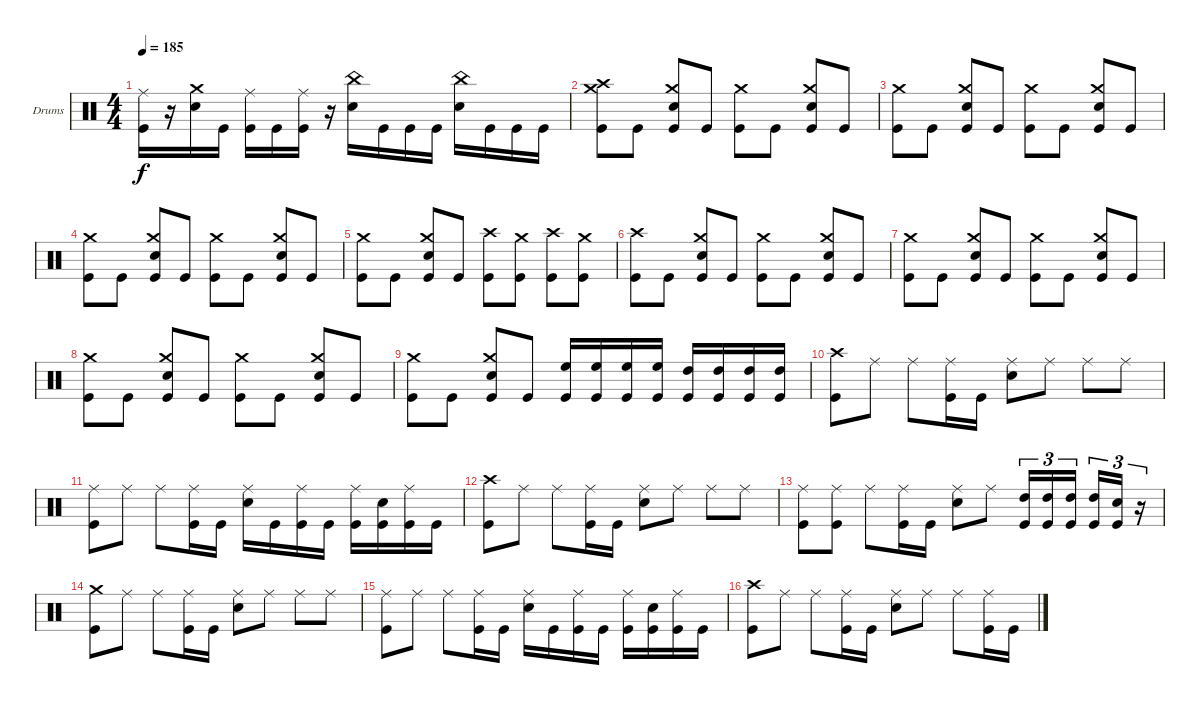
\bracketExtendMode groupsimilarinstruments
\firstSystemTrackNameOrientation horizontal
\otherSystemsTrackNameOrientation horizontal
\track ("Drumkit" "Drums") {instrument percussion}
\staff {score}
\articulation defaults
\ts (4 4)
\tempo 185
\clef neutral
\ks c
("Ride (middle)" "Kick (hit)").16{dy f} r.16 ("Crash medium (hit)" "Snare (hit) 2").16 "Kick (hit)".16 ("Ride (middle)" "Kick (hit)").16 "Kick (hit)".16 ("Ride (middle)" "Kick (hit)").16 r.16 ("China (hit)" "Snare (hit) 2").16 "Kick (hit)".16 "Kick (hit)".16 "Kick (hit)".16 ("China (hit)" "Snare (hit) 2").16 "Kick (hit)".16 "Kick (hit)".16 "Kick (hit)".16 |
("Crash medium (hit)" "Crash high (hit)" "Kick (hit)").8 "Kick (hit)".8 ("Crash medium (hit)" "Snare (hit) 2" "Kick (hit)").8 "Kick (hit)".8 ("Crash medium (hit)" "Kick (hit)").8 "Kick (hit)".8 ("Crash medium (hit)" "Snare (hit) 2" "Kick (hit)").8 "Kick (hit)".8 |
("Crash medium (hit)" "Kick (hit)").8 "Kick (hit)".8 ("Crash medium (hit)" "Snare (hit) 2" "Kick (hit)").8 "Kick (hit)".8 ("Crash medium (hit)" "Kick (hit)").8 "Kick (hit)".8 ("Crash medium (hit)" "Snare (hit) 2" "Kick (hit)").8 "Kick (hit)".8 |
("Crash medium (hit)" "Kick (hit)").8 "Kick (hit)".8 ("Crash medium (hit)" "Snare (hit) 2" "Kick (hit)").8 "Kick (hit)".8 ("Crash medium (hit)" "Kick (hit)").8 "Kick (hit)".8 ("Crash medium (hit)" "Snare (hit) 2" "Kick (hit)").8 "Kick (hit)".8 |
("Crash medium (hit)" "Kick (hit)").8 "Kick (hit)".8 ("Crash medium (hit)" "Snare (hit) 2" "Kick (hit)").8 "Kick (hit)".8 ("Crash high (hit)" "Kick (hit)").8 ("Crash medium (hit)" "Kick (hit)").8 ("Crash high (hit)" "Kick (hit)").8 ("Crash medium (hit)" "Kick (hit)").8 |
("Crash high (hit)" "Kick (hit)").8 "Kick (hit)".8 ("Crash medium (hit)" "Snare (hit) 2" "Kick (hit)").8 "Kick (hit)".8 ("Crash medium (hit)" "Kick (hit)").8 "Kick (hit)".8 ("Crash medium (hit)" "Snare (hit) 2" "Kick (hit)").8 "Kick (hit)".8 |
("Crash medium (hit)" "Kick (hit)").8 "Kick (hit)".8 ("Crash medium (hit)" "Snare (hit) 2" "Kick (hit)").8 "Kick (hit)".8 ("Crash medium (hit)" "Kick (hit)").8 "Kick (hit)".8 ("Crash medium (hit)" "Snare (hit) 2" "Kick (hit)").8 "Kick (hit)".8 |
("Crash medium (hit)" "Kick (hit)").8 "Kick (hit)".8 ("Crash medium (hit)" "Snare (hit) 2" "Kick (hit)").8 "Kick (hit)".8 ("Crash medium (hit)" "Kick (hit)").8 "Kick (hit)".8 ("Crash medium (hit)" "Snare (hit) 2" "Kick (hit)").8 "Kick (hit)".8 |
("Crash medium (hit)" "Kick (hit)").8 "Kick (hit)".8 ("Crash medium (hit)" "Snare (hit) 2" "Kick (hit)").8 "Kick (hit)".8 ("High Floor Tom (hit)" "Kick (hit)").16 ("High Floor Tom (hit)" "Kick (hit)").16 ("High Floor Tom (hit)" "Kick (hit)").16 ("High Floor Tom (hit)" "Kick (hit)").16 ("High Tom (hit)" "Kick (hit)").16 ("High Tom (hit)" "Kick (hit)").16 ("High Tom (hit)" "Kick (hit)").16 ("High Tom (hit)" "Kick (hit)").16 |
("Crash high (hit)" "Kick (hit)").8 "Ride (middle)".8 "Ride (middle)".8 ("Ride (middle)" "Kick (hit)").16 "Kick (hit)".16 ("Ride (middle)" "Snare (hit) 2").8 "Ride (middle)".8 "Ride (middle)".8 "Ride (middle)".8 |
("Ride (middle)" "Kick (hit)").8 "Ride (middle)".8 "Ride (middle)".8 ("Ride (middle)" "Kick (hit)").16 "Kick (hit)".16 ("Ride (middle)" "Snare (hit) 2").16 "Kick (hit)".16 ("Ride (middle)" "Kick (hit)").16 "Kick (hit)".16 ("Ride (middle)" "Kick (hit)").16 ("Snare (hit) 2" "Kick (hit)").16 ("Ride (middle)" "Kick (hit)").16 "Kick (hit)".16 |
("Crash high (hit)" "Kick (hit)").8 "Ride (middle)".8 "Ride (middle)".8 ("Ride (middle)" "Kick (hit)").16 "Kick (hit)".16 ("Ride (middle)" "Snare (hit) 2").8 "Ride (middle)".8 "Ride (middle)".8 "Ride (middle)".8 |
("Ride (middle)" "Kick (hit)").8 ("Ride (middle)" "Kick (hit)").8 "Ride (middle)".8 ("Ride (middle)" "Kick (hit)").16 "Kick (hit)".16 ("Ride (middle)" "Snare (hit) 2").8 "Ride (middle)".8 ("High Tom (hit)" "Kick (hit)").16{tu (3 2)} ("High Tom (hit)" "Kick (hit)").16{tu (3 2)} ("High Tom (hit)" "Kick (hit)").16{tu (3 2)} ("High Tom (hit)" "Kick (hit)").16{tu (3 2)} ("Snare (hit) 2" "Kick (hit)").16{tu (3 2)} r.16{tu (3 2)} |
("Crash medium (hit)" "Kick (hit)").8 "Ride (middle)".8 "Ride (middle)".8 ("Ride (middle)" "Kick (hit)").16 "Kick (hit)".16 ("Ride (middle)" "Snare (hit) 2").8 "Ride (middle)".8 "Ride (middle)".8 "Ride (middle)".8 |
("Ride (middle)" "Kick (hit)").8 "Ride (middle)".8 "Ride (middle)".8 ("Ride (middle)" "Kick (hit)").16 "Kick (hit)".16 ("Ride (middle)" "Snare (hit) 2").16 "Kick (hit)".16 ("Ride (middle)" "Kick (hit)").16 "Kick (hit)".16 ("Ride (middle)" "Kick (hit)").16 ("Snare (hit) 2" "Kick (hit)").16 ("Ride (middle)" "Kick (hit)").16 "Kick (hit)".16 |
("Crash high (hit)" "Kick (hit)").8 "Ride (middle)".8 "Ride (middle)".8 ("Ride (middle)" "Kick (hit)").16 "Kick (hit)".16 ("Ride (middle)" "Snare (hit) 2").8 "Ride (middle)".8 "Ride (middle)".8 ("Ride (middle)" "Kick (hit)").16 "Kick (hit)".16
